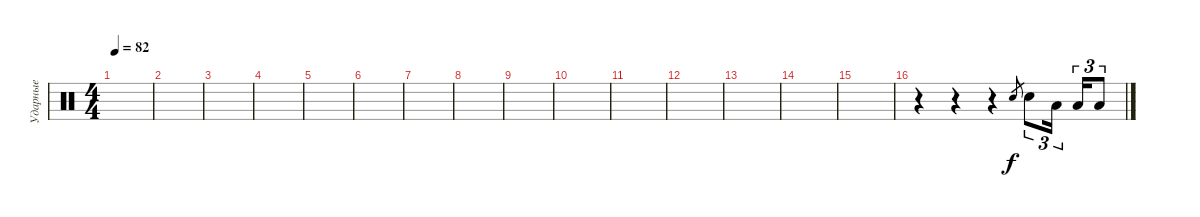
\track ("Ударные" "Ударные") {instrument percussion}
\staff {score}
\articulation defaults
\ts (4 4)
\tempo 82
\clef neutral
\ks c
|
|
|
|
|
|
|
|
|
|
|
|
|
|
|
r.4 r.4 r.4 "Electric Snare (hit)".8{gr} "Electric Snare (hit)".8{tu (3 2)} "Low Tom (hit)".16{tu (3 2)} "Low Tom (hit)".16{tu (3 2)} "Low Tom (hit)".8{tu (3 2)}
